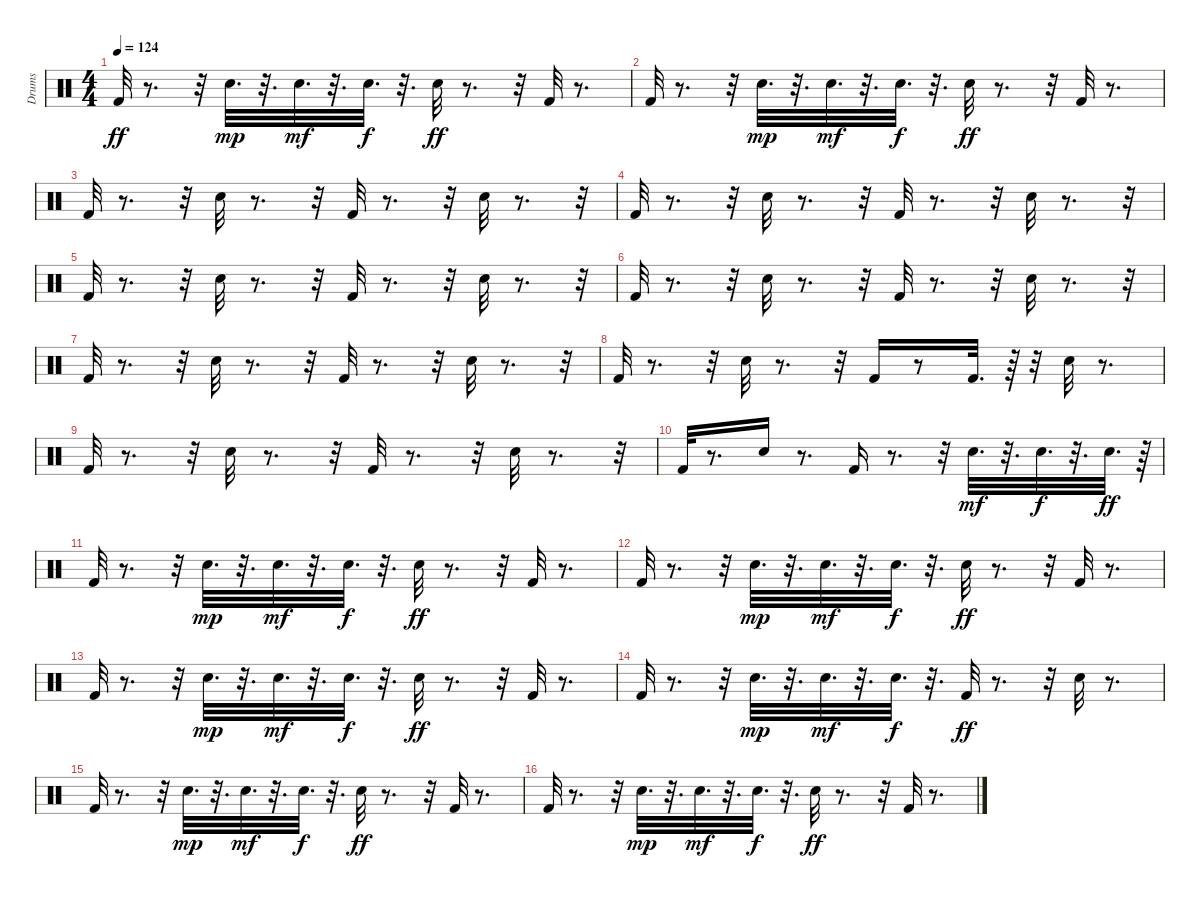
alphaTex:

\track ("Drums" "Drums") {instrument percussion}
\staff {score}
\articulation defaults
\ts (4 4)
\tempo 124
\clef neutral
\ks c "Kick (hit) 2".32{dy ff}
r.8{d} r.32 "Snare (hit) 2".32{d dy mp} r.32{d} "Snare (hit) 2".32{d dy mf} r.32{d} "Snare (hit) 2".32{d dy f} r.32{d} "Snare (hit) 2".32{dy ff} r.8{d} r.32 "Kick (hit) 2".32 r.8{d} |
"Kick (hit) 2".32 r.8{d} r.32 "Snare (hit) 2".32{d dy mp} r.32{d} "Snare (hit) 2".32{d dy mf} r.32{d} "Snare (hit) 2".32{d dy f} r.32{d} "Snare (hit) 2".32{dy ff} r.8{d} r.32 "Kick (hit) 2".32 r.8{d} |
"Kick (hit) 2".32 r.8{d} r.32 "Snare (hit) 2".32 r.8{d} r.32 "Kick (hit) 2".32 r.8{d} r.32 "Snare (hit) 2".32 r.8{d} r.32 |
"Kick (hit) 2".32 r.8{d} r.32 "Snare (hit) 2".32 r.8{d} r.32 "Kick (hit) 2".32 r.8{d} r.32 "Snare (hit) 2".32 r.8{d} r.32 |
"Kick (hit) 2".32 r.8{d} r.32 "Snare (hit) 2".32 r.8{d} r.32 "Kick (hit) 2".32 r.8{d} r.32 "Snare (hit) 2".32 r.8{d} r.32 |
"Kick (hit) 2".32 r.8{d} r.32 "Snare (hit) 2".32 r.8{d} r.32 "Kick (hit) 2".32 r.8{d} r.32 "Snare (hit) 2".32 r.8{d} r.32 |
"Kick (hit) 2".32 r.8{d} r.32 "Snare (hit) 2".32 r.8{d} r.32 "Kick (hit) 2".32 r.8{d} r.32 "Snare (hit) 2".32 r.8{d} r.32 |
"Kick (hit) 2".32 r.8{d} r.32 "Snare (hit) 2".32 r.8{d} r.32 "Kick (hit) 2".16 r.8 "Kick (hit) 2".32{d} r.64 r.32 "Snare (hit) 2".32 r.8{d} |
"Kick (hit) 2".32 r.8{d} r.32 "Snare (hit) 2".32 r.8{d} r.32 "Kick (hit) 2".32 r.8{d} r.32 "Snare (hit) 2".32 r.8{d} r.32 |
"Kick (hit) 2".32 r.8{d} "Snare (hit) 2".16 r.8{d} "Kick (hit) 2".16 r.8{d} r.32 "Snare (hit) 2".32{d dy mf} r.32{d} "Snare (hit) 2".32{d dy f} r.32{d} "Snare (hit) 2".32{d dy ff} r.64 |
"Kick (hit) 2".32 r.8{d} r.32 "Snare (hit) 2".32{d dy mp} r.32{d} "Snare (hit) 2".32{d dy mf} r.32{d} "Snare (hit) 2".32{d dy f} r.32{d} "Snare (hit) 2".32{dy ff} r.8{d} r.32 "Kick (hit) 2".32 r.8{d} |
"Kick (hit) 2".32 r.8{d} r.32 "Snare (hit) 2".32{d dy mp} r.32{d} "Snare (hit) 2".32{d dy mf} r.32{d} "Snare (hit) 2".32{d dy f} r.32{d} "Snare (hit) 2".32{dy ff} r.8{d} r.32 "Kick (hit) 2".32 r.8{d} |
"Kick (hit) 2".32 r.8{d} r.32 "Snare (hit) 2".32{d dy mp} r.32{d} "Snare (hit) 2".32{d dy mf} r.32{d} "Snare (hit) 2".32{d dy f} r.32{d} "Snare (hit) 2".32{dy ff} r.8{d} r.32 "Kick (hit) 2".32 r.8{d} |
"Kick (hit) 2".32 r.8{d} r.32 "Snare (hit) 2".32{d dy mp} r.32{d} "Snare (hit) 2".32{d dy mf} r.32{d} "Snare (hit) 2".32{d dy f} r.32{d} "Kick (hit) 2".32{dy ff} r.8{d} r.32 "Snare (hit) 2".32 r.8{d} |
"Kick (hit) 2".32 r.8{d} r.32 "Snare (hit) 2".32{d dy mp} r.32{d} "Snare (hit) 2".32{d dy mf} r.32{d} "Snare (hit) 2".32{d dy f} r.32{d} "Snare (hit) 2".32{dy ff} r.8{d} r.32 "Kick (hit) 2".32 r.8{d} |
"Kick (hit) 2".32 r.8{d} r.32 "Snare (hit) 2".32{d dy mp} r.32{d} "Snare (hit) 2".32{d dy mf} r.32{d} "Snare (hit) 2".32{d dy f} r.32{d} "Snare (hit) 2".32{dy ff} r.8{d} r.32 "Kick (hit) 2".32 r.8{d}
